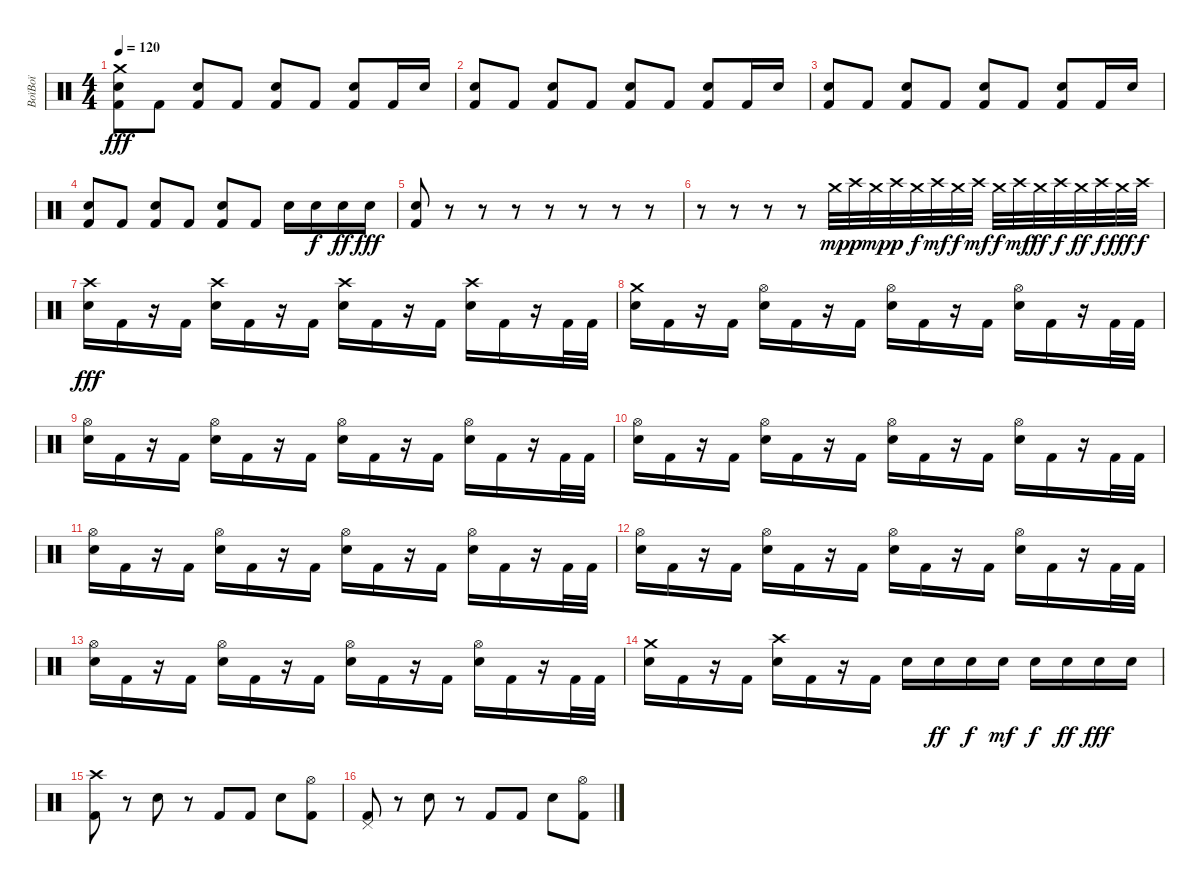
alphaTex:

\track ("BoïBoï" "BoïBoï") {instrument percussion}
\staff {score}
\articulation defaults
\ts (4 4)
\tempo 120
\clef neutral
\ks c
("Crash medium (hit)" "Electric Snare (hit)" "Kick (hit) 2").8{dy fff} "Kick (hit) 2".8 ("Electric Snare (hit)" "Kick (hit) 2").8 "Kick (hit) 2".8 ("Electric Snare (hit)" "Kick (hit) 2").8 "Kick (hit) 2".8 ("Electric Snare (hit)" "Kick (hit) 2").8 "Kick (hit) 2".16 "Electric Snare (hit)".16 |
("Electric Snare (hit)" "Kick (hit) 2").8 "Kick (hit) 2".8 ("Electric Snare (hit)" "Kick (hit) 2").8 "Kick (hit) 2".8 ("Electric Snare (hit)" "Kick (hit) 2").8 "Kick (hit) 2".8 ("Electric Snare (hit)" "Kick (hit) 2").8 "Kick (hit) 2".16 "Electric Snare (hit)".16 |
("Electric Snare (hit)" "Kick (hit) 2").8 "Kick (hit) 2".8 ("Electric Snare (hit)" "Kick (hit) 2").8 "Kick (hit) 2".8 ("Electric Snare (hit)" "Kick (hit) 2").8 "Kick (hit) 2".8 ("Electric Snare (hit)" "Kick (hit) 2").8 "Kick (hit) 2".16 "Electric Snare (hit)".16 |
("Electric Snare (hit)" "Kick (hit) 2").8 "Kick (hit) 2".8 ("Electric Snare (hit)" "Kick (hit) 2").8 "Kick (hit) 2".8 ("Electric Snare (hit)" "Kick (hit) 2").8 "Kick (hit) 2".8 "Electric Snare (hit)".16 "Electric Snare (hit)".16{dy f} "Electric Snare (hit)".16{dy ff} "Electric Snare (hit)".16{dy fff} |
("Electric Snare (hit)" "Kick (hit) 2").8 r.8 r.8 r.8 r.8 r.8 r.8 r.8 |
r.8 r.8 r.8 r.8 "Crash medium (hit)".32{dy mp} "Crash high (hit)".32{dy p} "Crash medium (hit)".32{dy mp} "Crash high (hit)".32{dy p} "Crash medium (hit)".32{dy f} "Crash high (hit)".32{dy mf} "Crash medium (hit)".32{dy f} "Crash high (hit)".32{dy mf} "Crash medium (hit)".32{dy f} "Crash high (hit)".32{dy mf} "Crash medium (hit)".32{dy ff} "Crash high (hit)".32{dy f} "Crash medium (hit)".32{dy ff} "Crash high (hit)".32{dy f} "Crash medium (hit)".32{dy fff} "Crash high (hit)".32{dy f} |
("Crash high (hit)" "Electric Snare (hit)").16{dy fff} "Kick (hit) 2".16 r.16 "Kick (hit) 2".16 ("Crash high (hit)" "Electric Snare (hit)").16 "Kick (hit) 2".16 r.16 "Kick (hit) 2".16 ("Crash high (hit)" "Electric Snare (hit)").16 "Kick (hit) 2".16 r.16 "Kick (hit) 2".16 ("Crash high (hit)" "Electric Snare (hit)").16 "Kick (hit) 2".16 r.16 "Kick (hit) 2".32 "Kick (hit) 2".32 |
("Crash medium (hit)" "Electric Snare (hit)").16 "Kick (hit) 2".16 r.16 "Kick (hit) 2".16 ("Hi-Hat (open)" "Electric Snare (hit)").16 "Kick (hit) 2".16 r.16 "Kick (hit) 2".16 ("Hi-Hat (open)" "Electric Snare (hit)").16 "Kick (hit) 2".16 r.16 "Kick (hit) 2".16 ("Hi-Hat (open)" "Electric Snare (hit)").16 "Kick (hit) 2".16 r.16 "Kick (hit) 2".32 "Kick (hit) 2".32 |
("Hi-Hat (open)" "Electric Snare (hit)").16 "Kick (hit) 2".16 r.16 "Kick (hit) 2".16 ("Hi-Hat (open)" "Electric Snare (hit)").16 "Kick (hit) 2".16 r.16 "Kick (hit) 2".16 ("Hi-Hat (open)" "Electric Snare (hit)").16 "Kick (hit) 2".16 r.16 "Kick (hit) 2".16 ("Hi-Hat (open)" "Electric Snare (hit)").16 "Kick (hit) 2".16 r.16 "Kick (hit) 2".32 "Kick (hit) 2".32 |
("Hi-Hat (open)" "Electric Snare (hit)").16 "Kick (hit) 2".16 r.16 "Kick (hit) 2".16 ("Hi-Hat (open)" "Electric Snare (hit)").16 "Kick (hit) 2".16 r.16 "Kick (hit) 2".16 ("Hi-Hat (open)" "Electric Snare (hit)").16 "Kick (hit) 2".16 r.16 "Kick (hit) 2".16 ("Hi-Hat (open)" "Electric Snare (hit)").16 "Kick (hit) 2".16 r.16 "Kick (hit) 2".32 "Kick (hit) 2".32 |
("Hi-Hat (open)" "Electric Snare (hit)").16 "Kick (hit) 2".16 r.16 "Kick (hit) 2".16 ("Hi-Hat (open)" "Electric Snare (hit)").16 "Kick (hit) 2".16 r.16 "Kick (hit) 2".16 ("Hi-Hat (open)" "Electric Snare (hit)").16 "Kick (hit) 2".16 r.16 "Kick (hit) 2".16 ("Hi-Hat (open)" "Electric Snare (hit)").16 "Kick (hit) 2".16 r.16 "Kick (hit) 2".32 "Kick (hit) 2".32 |
("Hi-Hat (open)" "Electric Snare (hit)").16 "Kick (hit) 2".16 r.16 "Kick (hit) 2".16 ("Hi-Hat (open)" "Electric Snare (hit)").16 "Kick (hit) 2".16 r.16 "Kick (hit) 2".16 ("Hi-Hat (open)" "Electric Snare (hit)").16 "Kick (hit) 2".16 r.16 "Kick (hit) 2".16 ("Hi-Hat (open)" "Electric Snare (hit)").16 "Kick (hit) 2".16 r.16 "Kick (hit) 2".32 "Kick (hit) 2".32 |
("Hi-Hat (open)" "Electric Snare (hit)").16 "Kick (hit) 2".16 r.16 "Kick (hit) 2".16 ("Hi-Hat (open)" "Electric Snare (hit)").16 "Kick (hit) 2".16 r.16 "Kick (hit) 2".16 ("Hi-Hat (open)" "Electric Snare (hit)").16 "Kick (hit) 2".16 r.16 "Kick (hit) 2".16 ("Hi-Hat (open)" "Electric Snare (hit)").16 "Kick (hit) 2".16 r.16 "Kick (hit) 2".32 "Kick (hit) 2".32 |
("Crash medium (hit)" "Electric Snare (hit)").16 "Kick (hit) 2".16 r.16 "Kick (hit) 2".16 ("Crash high (hit)" "Electric Snare (hit)").16 "Kick (hit) 2".16 r.16 "Kick (hit) 2".16 "Electric Snare (hit)".16 "Electric Snare (hit)".16{dy ff} "Electric Snare (hit)".16{dy f} "Electric Snare (hit)".16{dy mf} "Electric Snare (hit)".16{dy f} "Electric Snare (hit)".16{dy ff} "Electric Snare (hit)".16{dy fff} "Electric Snare (hit)".16 |
("Crash high (hit)" "Kick (hit) 2").8 r.8 "Electric Snare (hit)".8 r.8 "Kick (hit) 2".8 "Kick (hit) 2".8 "Electric Snare (hit)".8 ("Hi-Hat (open)" "Kick (hit) 2").8 |
("Pedal Hi-Hat (hit)" "Kick (hit) 2").8 r.8 "Electric Snare (hit)".8 r.8 "Kick (hit) 2".8 "Kick (hit) 2".8 "Electric Snare (hit)".8 ("Hi-Hat (open)" "Kick (hit) 2").8
